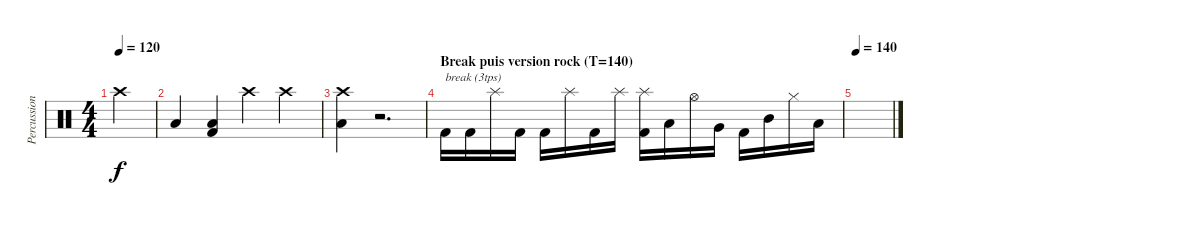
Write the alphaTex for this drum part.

\track ("Percussions" "Percussion") {instrument percussion}
\staff {score}
\articulation defaults
\ts (4 4)
\tempo 120
\clef neutral
\ks c "Crash high (hit)".4{dy f}
|
"Low Tom (hit)".4 ("Low Tom (hit)" "Kick (hit) 2").4 "Crash high (hit)".4 "Crash high (hit)".4 |
("Crash high (hit)" "Low Tom (hit)").4 r.2{d} |
\section ("" "Break puis version rock (T=140)")
"Kick (hit) 2".16{txt "break (3tps)"} "Kick (hit) 2".16 "Splash (hit)".16 "Kick (hit) 2".16 "Kick (hit) 2".16 "Splash (hit)".16 "Kick (hit) 2".16 "Splash (hit)".16 ("Splash (hit)" "Kick (hit) 2").16 "Low Tom (hit)".16 "Hi-Hat (open)".16 "Very Low Tom (hit)".16 "Kick (hit) 2".16 "Mid Tom (hit)".16 "Hi-Hat (closed)".16 "Low Floor Tom (hit)".16 |
\tempo 140
